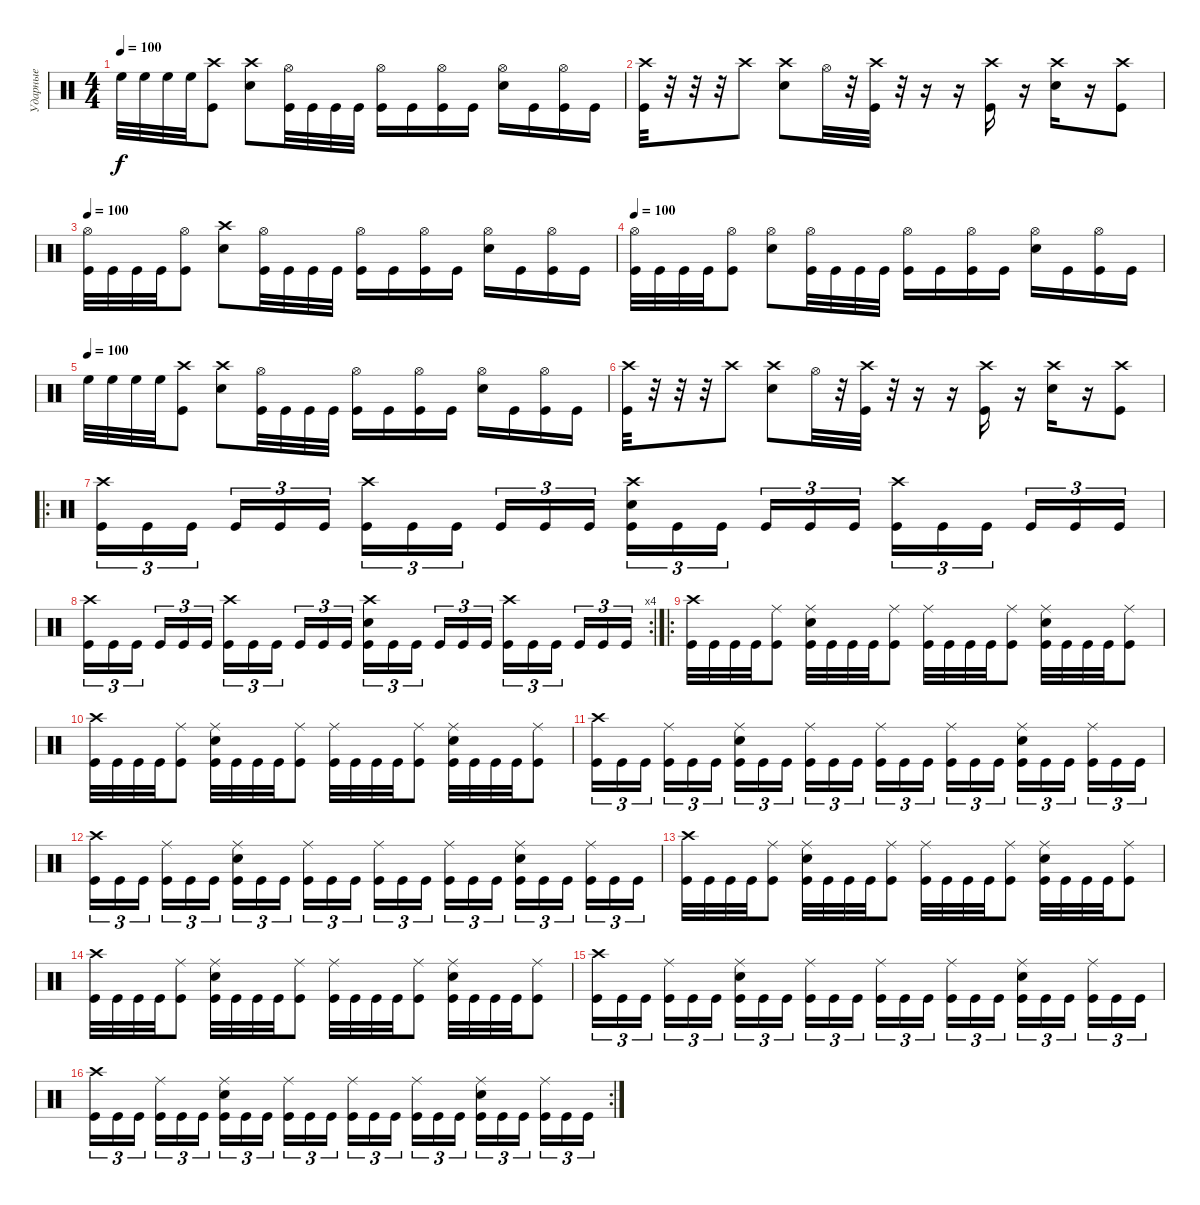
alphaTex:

\track ("Ударные" "Ударные") {instrument percussion}
\staff {score}
\articulation defaults
\ts (4 4)
\tempo 100
\clef neutral
\ks c "High Floor Tom (hit)".32{dy f} "High Floor Tom (hit)".32 "High Floor Tom (hit)".32 "High Floor Tom (hit)".32
("Crash high (hit)" "Kick (hit)").8 ("Crash high (hit)" "Snare (hit) 2").8 ("Hi-Hat (open)" "Kick (hit)").32 "Kick (hit)".32 "Kick (hit)".32 "Kick (hit)".32 ("Hi-Hat (open)" "Kick (hit)").16 "Kick (hit)".16 ("Hi-Hat (open)" "Kick (hit)").16 "Kick (hit)".16 ("Hi-Hat (open)" "Snare (hit) 2").16 "Kick (hit)".16 ("Hi-Hat (open)" "Kick (hit)").16 "Kick (hit)".16 |
("Crash high (hit)" "Kick (hit)").32 r.32 r.32 r.32 "Crash high (hit)".8 ("Crash high (hit)" "Snare (hit) 2").8 "Hi-Hat (open)".32 r.32 ("Crash high (hit)" "Kick (hit)").32 r.32 r.16 r.16 ("Crash high (hit)" "Kick (hit)").16 r.16 ("Crash high (hit)" "Snare (hit) 2").16 r.16 ("Crash high (hit)" "Kick (hit)").8 |
\tempo 100
("Hi-Hat (open)" "Kick (hit)").32 "Kick (hit)".32 "Kick (hit)".32 "Kick (hit)".32 ("Hi-Hat (open)" "Kick (hit)").8 ("Crash high (hit)" "Snare (hit) 2").8 ("Hi-Hat (open)" "Kick (hit)").32 "Kick (hit)".32 "Kick (hit)".32 "Kick (hit)".32 ("Hi-Hat (open)" "Kick (hit)").16 "Kick (hit)".16 ("Hi-Hat (open)" "Kick (hit)").16 "Kick (hit)".16 ("Snare (hit) 2" "Hi-Hat (open)").16 "Kick (hit)".16 ("Hi-Hat (open)" "Kick (hit)").16 "Kick (hit)".16 |
\tempo 100
("Hi-Hat (open)" "Kick (hit)").32 "Kick (hit)".32 "Kick (hit)".32 "Kick (hit)".32 ("Hi-Hat (open)" "Kick (hit)").8 ("Hi-Hat (open)" "Snare (hit) 2").8 ("Hi-Hat (open)" "Kick (hit)").32 "Kick (hit)".32 "Kick (hit)".32 "Kick (hit)".32 ("Hi-Hat (open)" "Kick (hit)").16 "Kick (hit)".16 ("Hi-Hat (open)" "Kick (hit)").16 "Kick (hit)".16 ("Snare (hit) 2" "Hi-Hat (open)").16 "Kick (hit)".16 ("Hi-Hat (open)" "Kick (hit)").16 "Kick (hit)".16 |
\tempo (100)
"High Floor Tom (hit)".32 "High Floor Tom (hit)".32 "High Floor Tom (hit)".32 "High Floor Tom (hit)".32 ("Crash high (hit)" "Kick (hit)").8 ("Crash high (hit)" "Snare (hit) 2").8 ("Hi-Hat (open)" "Kick (hit)").32 "Kick (hit)".32 "Kick (hit)".32 "Kick (hit)".32 ("Hi-Hat (open)" "Kick (hit)").16 "Kick (hit)".16 ("Hi-Hat (open)" "Kick (hit)").16 "Kick (hit)".16 ("Hi-Hat (open)" "Snare (hit) 2").16 "Kick (hit)".16 ("Hi-Hat (open)" "Kick (hit)").16 "Kick (hit)".16 |
("Crash high (hit)" "Kick (hit)").32 r.32 r.32 r.32 "Crash high (hit)".8 ("Crash high (hit)" "Snare (hit) 2").8 "Hi-Hat (open)".32 r.32 ("Crash high (hit)" "Kick (hit)").32 r.32 r.16 r.16 ("Crash high (hit)" "Kick (hit)").16 r.16 ("Crash high (hit)" "Snare (hit) 2").16 r.16 ("Crash high (hit)" "Kick (hit)").8 |
\ro
("Crash high (hit)" "Kick (hit)").16{tu (3 2)} "Kick (hit)".16{tu (3 2)} "Kick (hit)".16{tu (3 2) beam splitsecondary} "Kick (hit)".16{tu (3 2)} "Kick (hit)".16{tu (3 2)} "Kick (hit)".16{tu (3 2)} ("Crash high (hit)" "Kick (hit)").16{tu (3 2)} "Kick (hit)".16{tu (3 2)} "Kick (hit)".16{tu (3 2) beam splitsecondary} "Kick (hit)".16{tu (3 2)} "Kick (hit)".16{tu (3 2)} "Kick (hit)".16{tu (3 2)} ("Crash high (hit)" "Snare (hit) 2" "Kick (hit)").16{tu (3 2)} "Kick (hit)".16{tu (3 2)} "Kick (hit)".16{tu (3 2) beam splitsecondary} "Kick (hit)".16{tu (3 2)} "Kick (hit)".16{tu (3 2)} "Kick (hit)".16{tu (3 2)} ("Crash high (hit)" "Kick (hit)").16{tu (3 2)} "Kick (hit)".16{tu (3 2)} "Kick (hit)".16{tu (3 2) beam splitsecondary} "Kick (hit)".16{tu (3 2)} "Kick (hit)".16{tu (3 2)} "Kick (hit)".16{tu (3 2)} |
\rc 4
("Crash high (hit)" "Kick (hit)").16{tu (3 2)} "Kick (hit)".16{tu (3 2)} "Kick (hit)".16{tu (3 2) beam splitsecondary} "Kick (hit)".16{tu (3 2)} "Kick (hit)".16{tu (3 2)} "Kick (hit)".16{tu (3 2)} ("Crash high (hit)" "Kick (hit)").16{tu (3 2)} "Kick (hit)".16{tu (3 2)} "Kick (hit)".16{tu (3 2) beam splitsecondary} "Kick (hit)".16{tu (3 2)} "Kick (hit)".16{tu (3 2)} "Kick (hit)".16{tu (3 2)} ("Crash high (hit)" "Snare (hit) 2" "Kick (hit)").16{tu (3 2)} "Kick (hit)".16{tu (3 2)} "Kick (hit)".16{tu (3 2) beam splitsecondary} "Kick (hit)".16{tu (3 2)} "Kick (hit)".16{tu (3 2)} "Kick (hit)".16{tu (3 2)} ("Crash high (hit)" "Kick (hit)").16{tu (3 2)} "Kick (hit)".16{tu (3 2)} "Kick (hit)".16{tu (3 2) beam splitsecondary} "Kick (hit)".16{tu (3 2)} "Kick (hit)".16{tu (3 2)} "Kick (hit)".16{tu (3 2)} |
\ro
("Crash high (hit)" "Kick (hit)").32 "Kick (hit)".32 "Kick (hit)".32 "Kick (hit)".32 ("Ride (middle)" "Kick (hit)").8 ("Ride (middle)" "Snare (hit) 2" "Kick (hit)").32 "Kick (hit)".32 "Kick (hit)".32 "Kick (hit)".32 ("Ride (middle)" "Kick (hit)").8 ("Ride (middle)" "Kick (hit)").32 "Kick (hit)".32 "Kick (hit)".32 "Kick (hit)".32 ("Ride (middle)" "Kick (hit)").8 ("Ride (middle)" "Snare (hit) 2" "Kick (hit)").32 "Kick (hit)".32 "Kick (hit)".32 "Kick (hit)".32 ("Ride (middle)" "Kick (hit)").8 |
("Crash high (hit)" "Kick (hit)").32 "Kick (hit)".32 "Kick (hit)".32 "Kick (hit)".32 ("Ride (middle)" "Kick (hit)").8 ("Ride (middle)" "Snare (hit) 2" "Kick (hit)").32 "Kick (hit)".32 "Kick (hit)".32 "Kick (hit)".32 ("Ride (middle)" "Kick (hit)").8 ("Ride (middle)" "Kick (hit)").32 "Kick (hit)".32 "Kick (hit)".32 "Kick (hit)".32 ("Ride (middle)" "Kick (hit)").8 ("Ride (middle)" "Snare (hit) 2" "Kick (hit)").32 "Kick (hit)".32 "Kick (hit)".32 "Kick (hit)".32 ("Ride (middle)" "Kick (hit)").8 |
("Crash high (hit)" "Kick (hit)").16{tu (3 2)} "Kick (hit)".16{tu (3 2)} "Kick (hit)".16{tu (3 2) beam splitsecondary} ("Ride (middle)" "Kick (hit)").16{tu (3 2)} "Kick (hit)".16{tu (3 2)} "Kick (hit)".16{tu (3 2)} ("Ride (middle)" "Snare (hit) 2" "Kick (hit)").16{tu (3 2)} "Kick (hit)".16{tu (3 2)} "Kick (hit)".16{tu (3 2) beam splitsecondary} ("Ride (middle)" "Kick (hit)").16{tu (3 2)} "Kick (hit)".16{tu (3 2)} "Kick (hit)".16{tu (3 2)} ("Ride (middle)" "Kick (hit)").16{tu (3 2)} "Kick (hit)".16{tu (3 2)} "Kick (hit)".16{tu (3 2) beam splitsecondary} ("Ride (middle)" "Kick (hit)").16{tu (3 2)} "Kick (hit)".16{tu (3 2)} "Kick (hit)".16{tu (3 2)} ("Ride (middle)" "Snare (hit) 2" "Kick (hit)").16{tu (3 2)} "Kick (hit)".16{tu (3 2)} "Kick (hit)".16{tu (3 2) beam splitsecondary} ("Ride (middle)" "Kick (hit)").16{tu (3 2)} "Kick (hit)".16{tu (3 2)} "Kick (hit)".16{tu (3 2)} |
("Crash high (hit)" "Kick (hit)").16{tu (3 2)} "Kick (hit)".16{tu (3 2)} "Kick (hit)".16{tu (3 2) beam splitsecondary} ("Ride (middle)" "Kick (hit)").16{tu (3 2)} "Kick (hit)".16{tu (3 2)} "Kick (hit)".16{tu (3 2)} ("Ride (middle)" "Snare (hit) 2" "Kick (hit)").16{tu (3 2)} "Kick (hit)".16{tu (3 2)} "Kick (hit)".16{tu (3 2) beam splitsecondary} ("Ride (middle)" "Kick (hit)").16{tu (3 2)} "Kick (hit)".16{tu (3 2)} "Kick (hit)".16{tu (3 2)} ("Ride (middle)" "Kick (hit)").16{tu (3 2)} "Kick (hit)".16{tu (3 2)} "Kick (hit)".16{tu (3 2) beam splitsecondary} ("Ride (middle)" "Kick (hit)").16{tu (3 2)} "Kick (hit)".16{tu (3 2)} "Kick (hit)".16{tu (3 2)} ("Ride (middle)" "Snare (hit) 2" "Kick (hit)").16{tu (3 2)} "Kick (hit)".16{tu (3 2)} "Kick (hit)".16{tu (3 2) beam splitsecondary} ("Ride (middle)" "Kick (hit)").16{tu (3 2)} "Kick (hit)".16{tu (3 2)} "Kick (hit)".16{tu (3 2)} |
("Crash high (hit)" "Kick (hit)").32 "Kick (hit)".32 "Kick (hit)".32 "Kick (hit)".32 ("Ride (middle)" "Kick (hit)").8 ("Ride (middle)" "Snare (hit) 2" "Kick (hit)").32 "Kick (hit)".32 "Kick (hit)".32 "Kick (hit)".32 ("Ride (middle)" "Kick (hit)").8 ("Ride (middle)" "Kick (hit)").32 "Kick (hit)".32 "Kick (hit)".32 "Kick (hit)".32 ("Ride (middle)" "Kick (hit)").8 ("Ride (middle)" "Snare (hit) 2" "Kick (hit)").32 "Kick (hit)".32 "Kick (hit)".32 "Kick (hit)".32 ("Ride (middle)" "Kick (hit)").8 |
("Crash high (hit)" "Kick (hit)").32 "Kick (hit)".32 "Kick (hit)".32 "Kick (hit)".32 ("Ride (middle)" "Kick (hit)").8 ("Ride (middle)" "Snare (hit) 2" "Kick (hit)").32 "Kick (hit)".32 "Kick (hit)".32 "Kick (hit)".32 ("Ride (middle)" "Kick (hit)").8 ("Ride (middle)" "Kick (hit)").32 "Kick (hit)".32 "Kick (hit)".32 "Kick (hit)".32 ("Ride (middle)" "Kick (hit)").8 ("Ride (middle)" "Snare (hit) 2" "Kick (hit)").32 "Kick (hit)".32 "Kick (hit)".32 "Kick (hit)".32 ("Ride (middle)" "Kick (hit)").8 |
("Crash high (hit)" "Kick (hit)").16{tu (3 2)} "Kick (hit)".16{tu (3 2)} "Kick (hit)".16{tu (3 2) beam splitsecondary} ("Ride (middle)" "Kick (hit)").16{tu (3 2)} "Kick (hit)".16{tu (3 2)} "Kick (hit)".16{tu (3 2)} ("Ride (middle)" "Snare (hit) 2" "Kick (hit)").16{tu (3 2)} "Kick (hit)".16{tu (3 2)} "Kick (hit)".16{tu (3 2) beam splitsecondary} ("Ride (middle)" "Kick (hit)").16{tu (3 2)} "Kick (hit)".16{tu (3 2)} "Kick (hit)".16{tu (3 2)} ("Ride (middle)" "Kick (hit)").16{tu (3 2)} "Kick (hit)".16{tu (3 2)} "Kick (hit)".16{tu (3 2) beam splitsecondary} ("Ride (middle)" "Kick (hit)").16{tu (3 2)} "Kick (hit)".16{tu (3 2)} "Kick (hit)".16{tu (3 2)} ("Ride (middle)" "Snare (hit) 2" "Kick (hit)").16{tu (3 2)} "Kick (hit)".16{tu (3 2)} "Kick (hit)".16{tu (3 2) beam splitsecondary} ("Ride (middle)" "Kick (hit)").16{tu (3 2)} "Kick (hit)".16{tu (3 2)} "Kick (hit)".16{tu (3 2)} |
\rc 2
("Crash high (hit)" "Kick (hit)").16{tu (3 2)} "Kick (hit)".16{tu (3 2)} "Kick (hit)".16{tu (3 2) beam splitsecondary} ("Ride (middle)" "Kick (hit)").16{tu (3 2)} "Kick (hit)".16{tu (3 2)} "Kick (hit)".16{tu (3 2)} ("Ride (middle)" "Snare (hit) 2" "Kick (hit)").16{tu (3 2)} "Kick (hit)".16{tu (3 2)} "Kick (hit)".16{tu (3 2) beam splitsecondary} ("Ride (middle)" "Kick (hit)").16{tu (3 2)} "Kick (hit)".16{tu (3 2)} "Kick (hit)".16{tu (3 2)} ("Ride (middle)" "Kick (hit)").16{tu (3 2)} "Kick (hit)".16{tu (3 2)} "Kick (hit)".16{tu (3 2) beam splitsecondary} ("Ride (middle)" "Kick (hit)").16{tu (3 2)} "Kick (hit)".16{tu (3 2)} "Kick (hit)".16{tu (3 2)} ("Ride (middle)" "Snare (hit) 2" "Kick (hit)").16{tu (3 2)} "Kick (hit)".16{tu (3 2)} "Kick (hit)".16{tu (3 2) beam splitsecondary} ("Ride (middle)" "Kick (hit)").16{tu (3 2)} "Kick (hit)".16{tu (3 2)} "Kick (hit)".16{tu (3 2)}
